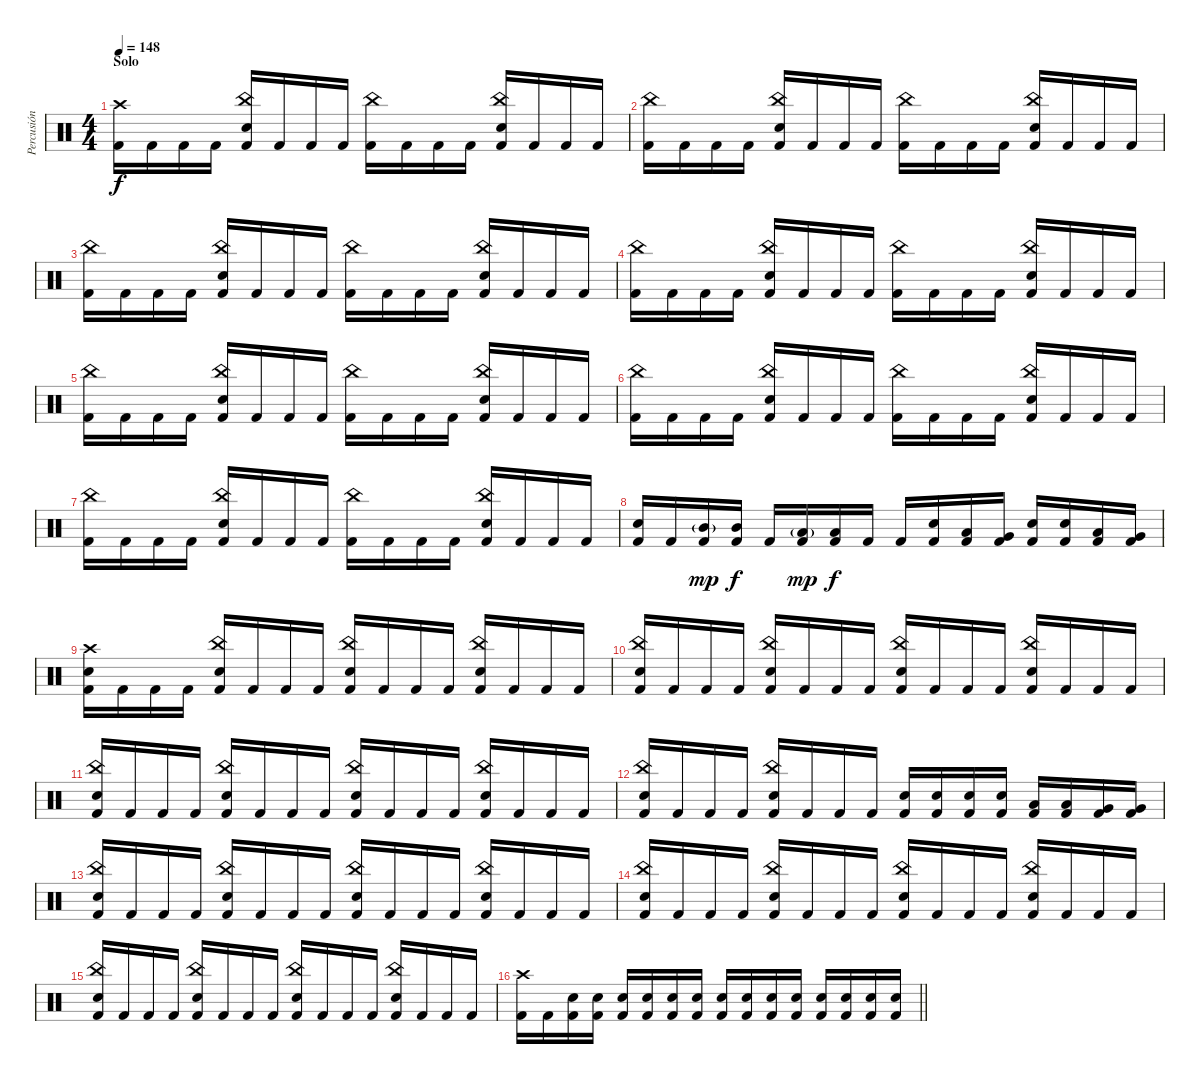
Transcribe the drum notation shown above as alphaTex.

\track ("Percusión" "Percusión") {instrument percussion}
\staff {score}
\articulation defaults
\ts (4 4)
\section ("" "Solo")
\tempo 148
\clef neutral
\ks c
("Crash high (hit)" "Kick (hit) 2").16{dy f} "Kick (hit) 2".16 "Kick (hit) 2".16 "Kick (hit) 2".16 ("China (hit)" "Electric Snare (hit)" "Kick (hit) 2").16 "Kick (hit) 2".16 "Kick (hit) 2".16 "Kick (hit) 2".16 ("China (hit)" "Kick (hit) 2").16 "Kick (hit) 2".16 "Kick (hit) 2".16 "Kick (hit) 2".16 ("China (hit)" "Electric Snare (hit)" "Kick (hit) 2").16 "Kick (hit) 2".16 "Kick (hit) 2".16 "Kick (hit) 2".16 |
("China (hit)" "Kick (hit) 2").16 "Kick (hit) 2".16 "Kick (hit) 2".16 "Kick (hit) 2".16 ("China (hit)" "Electric Snare (hit)" "Kick (hit) 2").16 "Kick (hit) 2".16 "Kick (hit) 2".16 "Kick (hit) 2".16 ("China (hit)" "Kick (hit) 2").16 "Kick (hit) 2".16 "Kick (hit) 2".16 "Kick (hit) 2".16 ("China (hit)" "Electric Snare (hit)" "Kick (hit) 2").16 "Kick (hit) 2".16 "Kick (hit) 2".16 "Kick (hit) 2".16 |
("China (hit)" "Kick (hit) 2").16 "Kick (hit) 2".16 "Kick (hit) 2".16 "Kick (hit) 2".16 ("China (hit)" "Electric Snare (hit)" "Kick (hit) 2").16 "Kick (hit) 2".16 "Kick (hit) 2".16 "Kick (hit) 2".16 ("China (hit)" "Kick (hit) 2").16 "Kick (hit) 2".16 "Kick (hit) 2".16 "Kick (hit) 2".16 ("China (hit)" "Electric Snare (hit)" "Kick (hit) 2").16 "Kick (hit) 2".16 "Kick (hit) 2".16 "Kick (hit) 2".16 |
("China (hit)" "Kick (hit) 2").16 "Kick (hit) 2".16 "Kick (hit) 2".16 "Kick (hit) 2".16 ("China (hit)" "Electric Snare (hit)" "Kick (hit) 2").16 "Kick (hit) 2".16 "Kick (hit) 2".16 "Kick (hit) 2".16 ("China (hit)" "Kick (hit) 2").16 "Kick (hit) 2".16 "Kick (hit) 2".16 "Kick (hit) 2".16 ("China (hit)" "Electric Snare (hit)" "Kick (hit) 2").16 "Kick (hit) 2".16 "Kick (hit) 2".16 "Kick (hit) 2".16 |
("China (hit)" "Kick (hit) 2").16 "Kick (hit) 2".16 "Kick (hit) 2".16 "Kick (hit) 2".16 ("China (hit)" "Electric Snare (hit)" "Kick (hit) 2").16 "Kick (hit) 2".16 "Kick (hit) 2".16 "Kick (hit) 2".16 ("China (hit)" "Kick (hit) 2").16 "Kick (hit) 2".16 "Kick (hit) 2".16 "Kick (hit) 2".16 ("China (hit)" "Electric Snare (hit)" "Kick (hit) 2").16 "Kick (hit) 2".16 "Kick (hit) 2".16 "Kick (hit) 2".16 |
("China (hit)" "Kick (hit) 2").16 "Kick (hit) 2".16 "Kick (hit) 2".16 "Kick (hit) 2".16 ("China (hit)" "Electric Snare (hit)" "Kick (hit) 2").16 "Kick (hit) 2".16 "Kick (hit) 2".16 "Kick (hit) 2".16 ("China (hit)" "Kick (hit) 2").16 "Kick (hit) 2".16 "Kick (hit) 2".16 "Kick (hit) 2".16 ("China (hit)" "Electric Snare (hit)" "Kick (hit) 2").16 "Kick (hit) 2".16 "Kick (hit) 2".16 "Kick (hit) 2".16 |
("China (hit)" "Kick (hit) 2").16 "Kick (hit) 2".16 "Kick (hit) 2".16 "Kick (hit) 2".16 ("China (hit)" "Electric Snare (hit)" "Kick (hit) 2").16 "Kick (hit) 2".16 "Kick (hit) 2".16 "Kick (hit) 2".16 ("China (hit)" "Kick (hit) 2").16 "Kick (hit) 2".16 "Kick (hit) 2".16 "Kick (hit) 2".16 ("China (hit)" "Electric Snare (hit)" "Kick (hit) 2").16 "Kick (hit) 2".16 "Kick (hit) 2".16 "Kick (hit) 2".16 |
("Electric Snare (hit)" "Kick (hit) 2").16 "Kick (hit) 2".16 ("Mid Tom (hit)"{g} "Kick (hit) 2").16{dy mp} ("Mid Tom (hit)" "Kick (hit) 2").16{dy f} "Kick (hit) 2".16 ("Low Tom (hit)"{g} "Kick (hit) 2").16{dy mp} ("Low Tom (hit)" "Kick (hit) 2").16{dy f} "Kick (hit) 2".16 "Kick (hit) 2".16 ("Electric Snare (hit)" "Kick (hit) 2").16 ("Low Tom (hit)" "Kick (hit) 2").16 ("Very Low Tom (hit)" "Kick (hit) 2").16 ("Electric Snare (hit)" "Kick (hit) 2").16 ("Electric Snare (hit)" "Kick (hit) 2").16 ("Low Tom (hit)" "Kick (hit) 2").16 ("Very Low Tom (hit)" "Kick (hit) 2").16 |
("Crash high (hit)" "Electric Snare (hit)" "Kick (hit) 2").16 "Kick (hit) 2".16 "Kick (hit) 2".16 "Kick (hit) 2".16 ("China (hit)" "Electric Snare (hit)" "Kick (hit) 2").16 "Kick (hit) 2".16 "Kick (hit) 2".16 "Kick (hit) 2".16 ("China (hit)" "Electric Snare (hit)" "Kick (hit) 2").16 "Kick (hit) 2".16 "Kick (hit) 2".16 "Kick (hit) 2".16 ("China (hit)" "Electric Snare (hit)" "Kick (hit) 2").16 "Kick (hit) 2".16 "Kick (hit) 2".16 "Kick (hit) 2".16 |
("China (hit)" "Electric Snare (hit)" "Kick (hit) 2").16 "Kick (hit) 2".16 "Kick (hit) 2".16 "Kick (hit) 2".16 ("China (hit)" "Electric Snare (hit)" "Kick (hit) 2").16 "Kick (hit) 2".16 "Kick (hit) 2".16 "Kick (hit) 2".16 ("China (hit)" "Electric Snare (hit)" "Kick (hit) 2").16 "Kick (hit) 2".16 "Kick (hit) 2".16 "Kick (hit) 2".16 ("China (hit)" "Electric Snare (hit)" "Kick (hit) 2").16 "Kick (hit) 2".16 "Kick (hit) 2".16 "Kick (hit) 2".16 |
("China (hit)" "Electric Snare (hit)" "Kick (hit) 2").16 "Kick (hit) 2".16 "Kick (hit) 2".16 "Kick (hit) 2".16 ("China (hit)" "Electric Snare (hit)" "Kick (hit) 2").16 "Kick (hit) 2".16 "Kick (hit) 2".16 "Kick (hit) 2".16 ("China (hit)" "Electric Snare (hit)" "Kick (hit) 2").16 "Kick (hit) 2".16 "Kick (hit) 2".16 "Kick (hit) 2".16 ("China (hit)" "Electric Snare (hit)" "Kick (hit) 2").16 "Kick (hit) 2".16 "Kick (hit) 2".16 "Kick (hit) 2".16 |
("China (hit)" "Electric Snare (hit)" "Kick (hit) 2").16 "Kick (hit) 2".16 "Kick (hit) 2".16 "Kick (hit) 2".16 ("China (hit)" "Electric Snare (hit)" "Kick (hit) 2").16 "Kick (hit) 2".16 "Kick (hit) 2".16 "Kick (hit) 2".16 ("Electric Snare (hit)" "Kick (hit) 2").16 ("Electric Snare (hit)" "Kick (hit) 2").16 ("Electric Snare (hit)" "Kick (hit) 2").16 ("Electric Snare (hit)" "Kick (hit) 2").16 ("Low Tom (hit)" "Kick (hit) 2").16 ("Low Tom (hit)" "Kick (hit) 2").16 ("Very Low Tom (hit)" "Kick (hit) 2").16 ("Very Low Tom (hit)" "Kick (hit) 2").16 |
("China (hit)" "Electric Snare (hit)" "Kick (hit) 2").16 "Kick (hit) 2".16 "Kick (hit) 2".16 "Kick (hit) 2".16 ("China (hit)" "Electric Snare (hit)" "Kick (hit) 2").16 "Kick (hit) 2".16 "Kick (hit) 2".16 "Kick (hit) 2".16 ("China (hit)" "Electric Snare (hit)" "Kick (hit) 2").16 "Kick (hit) 2".16 "Kick (hit) 2".16 "Kick (hit) 2".16 ("China (hit)" "Electric Snare (hit)" "Kick (hit) 2").16 "Kick (hit) 2".16 "Kick (hit) 2".16 "Kick (hit) 2".16 |
("China (hit)" "Electric Snare (hit)" "Kick (hit) 2").16 "Kick (hit) 2".16 "Kick (hit) 2".16 "Kick (hit) 2".16 ("China (hit)" "Electric Snare (hit)" "Kick (hit) 2").16 "Kick (hit) 2".16 "Kick (hit) 2".16 "Kick (hit) 2".16 ("China (hit)" "Electric Snare (hit)" "Kick (hit) 2").16 "Kick (hit) 2".16 "Kick (hit) 2".16 "Kick (hit) 2".16 ("China (hit)" "Electric Snare (hit)" "Kick (hit) 2").16 "Kick (hit) 2".16 "Kick (hit) 2".16 "Kick (hit) 2".16 |
("China (hit)" "Electric Snare (hit)" "Kick (hit) 2").16 "Kick (hit) 2".16 "Kick (hit) 2".16 "Kick (hit) 2".16 ("China (hit)" "Electric Snare (hit)" "Kick (hit) 2").16 "Kick (hit) 2".16 "Kick (hit) 2".16 "Kick (hit) 2".16 ("China (hit)" "Electric Snare (hit)" "Kick (hit) 2").16 "Kick (hit) 2".16 "Kick (hit) 2".16 "Kick (hit) 2".16 ("China (hit)" "Electric Snare (hit)" "Kick (hit) 2").16 "Kick (hit) 2".16 "Kick (hit) 2".16 "Kick (hit) 2".16 |
\barLineRight lightlight
("Crash high (hit)" "Kick (hit) 2").16 "Kick (hit) 2".16 ("Electric Snare (hit)" "Kick (hit) 2").16 ("Electric Snare (hit)" "Kick (hit) 2").16 ("Electric Snare (hit)" "Kick (hit) 2").16 ("Electric Snare (hit)" "Kick (hit) 2").16 ("Electric Snare (hit)" "Kick (hit) 2").16 ("Electric Snare (hit)" "Kick (hit) 2").16 ("Electric Snare (hit)" "Kick (hit) 2").16 ("Electric Snare (hit)" "Kick (hit) 2").16 ("Electric Snare (hit)" "Kick (hit) 2").16 ("Electric Snare (hit)" "Kick (hit) 2").16 ("Electric Snare (hit)" "Kick (hit) 2").16 ("Electric Snare (hit)" "Kick (hit) 2").16 ("Electric Snare (hit)" "Kick (hit) 2").16 ("Electric Snare (hit)" "Kick (hit) 2").16
